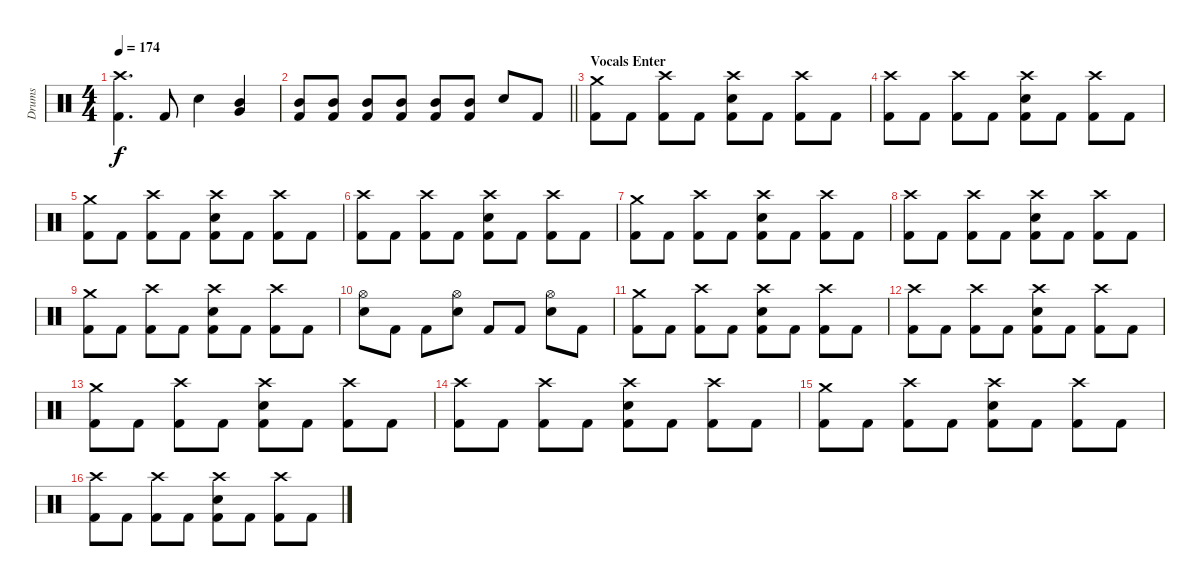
\track ("Drums" "Drums") {instrument percussion}
\staff {score}
\articulation defaults
\ts (4 4)
\tempo 174
\clef neutral
\ks c
("Crash high (hit)" "Kick (hit) 2").4{d dy f} "Kick (hit) 2".8 "Electric Snare (hit)".4 ("Mid Tom (hit)" "Very Low Tom (hit)").4 |
\barLineRight lightlight
("Mid Tom (hit)" "Kick (hit) 2").8 ("Mid Tom (hit)" "Kick (hit) 2").8 ("Mid Tom (hit)" "Kick (hit) 2").8 ("Mid Tom (hit)" "Kick (hit) 2").8 ("Mid Tom (hit)" "Kick (hit) 2").8 ("Mid Tom (hit)" "Kick (hit) 2").8 "Electric Snare (hit)".8 "Kick (hit) 2".8 |
\section ("" "Vocals Enter")
("Crash medium (hit)" "Kick (hit) 2").8 "Kick (hit) 2".8 ("Crash high (hit)" "Kick (hit) 2").8 "Kick (hit) 2".8 ("Crash high (hit)" "Electric Snare (hit)" "Kick (hit) 2").8 "Kick (hit) 2".8 ("Crash high (hit)" "Kick (hit) 2").8 "Kick (hit) 2".8 |
("Crash high (hit)" "Kick (hit) 2").8 "Kick (hit) 2".8 ("Crash high (hit)" "Kick (hit) 2").8 "Kick (hit) 2".8 ("Crash high (hit)" "Electric Snare (hit)" "Kick (hit) 2").8 "Kick (hit) 2".8 ("Crash high (hit)" "Kick (hit) 2").8 "Kick (hit) 2".8 |
("Crash medium (hit)" "Kick (hit) 2").8 "Kick (hit) 2".8 ("Crash high (hit)" "Kick (hit) 2").8 "Kick (hit) 2".8 ("Crash high (hit)" "Electric Snare (hit)" "Kick (hit) 2").8 "Kick (hit) 2".8 ("Crash high (hit)" "Kick (hit) 2").8 "Kick (hit) 2".8 |
("Crash high (hit)" "Kick (hit) 2").8 "Kick (hit) 2".8 ("Crash high (hit)" "Kick (hit) 2").8 "Kick (hit) 2".8 ("Crash high (hit)" "Electric Snare (hit)" "Kick (hit) 2").8 "Kick (hit) 2".8 ("Crash high (hit)" "Kick (hit) 2").8 "Kick (hit) 2".8 |
("Crash medium (hit)" "Kick (hit) 2").8 "Kick (hit) 2".8 ("Crash high (hit)" "Kick (hit) 2").8 "Kick (hit) 2".8 ("Crash high (hit)" "Electric Snare (hit)" "Kick (hit) 2").8 "Kick (hit) 2".8 ("Crash high (hit)" "Kick (hit) 2").8 "Kick (hit) 2".8 |
("Crash high (hit)" "Kick (hit) 2").8 "Kick (hit) 2".8 ("Crash high (hit)" "Kick (hit) 2").8 "Kick (hit) 2".8 ("Crash high (hit)" "Electric Snare (hit)" "Kick (hit) 2").8 "Kick (hit) 2".8 ("Crash high (hit)" "Kick (hit) 2").8 "Kick (hit) 2".8 |
("Crash medium (hit)" "Kick (hit) 2").8 "Kick (hit) 2".8 ("Crash high (hit)" "Kick (hit) 2").8 "Kick (hit) 2".8 ("Crash high (hit)" "Electric Snare (hit)" "Kick (hit) 2").8 "Kick (hit) 2".8 ("Crash high (hit)" "Kick (hit) 2").8 "Kick (hit) 2".8 |
("Hi-Hat (open)" "Electric Snare (hit)").8 "Kick (hit) 2".8 "Kick (hit) 2".8 ("Hi-Hat (open)" "Electric Snare (hit)").8 "Kick (hit) 2".8 "Kick (hit) 2".8 ("Hi-Hat (open)" "Electric Snare (hit)").8 "Kick (hit) 2".8 |
("Crash medium (hit)" "Kick (hit) 2").8 "Kick (hit) 2".8 ("Crash high (hit)" "Kick (hit) 2").8 "Kick (hit) 2".8 ("Crash high (hit)" "Electric Snare (hit)" "Kick (hit) 2").8 "Kick (hit) 2".8 ("Crash high (hit)" "Kick (hit) 2").8 "Kick (hit) 2".8 |
("Crash high (hit)" "Kick (hit) 2").8 "Kick (hit) 2".8 ("Crash high (hit)" "Kick (hit) 2").8 "Kick (hit) 2".8 ("Crash high (hit)" "Electric Snare (hit)" "Kick (hit) 2").8 "Kick (hit) 2".8 ("Crash high (hit)" "Kick (hit) 2").8 "Kick (hit) 2".8 |
("Crash medium (hit)" "Kick (hit) 2").8 "Kick (hit) 2".8 ("Crash high (hit)" "Kick (hit) 2").8 "Kick (hit) 2".8 ("Crash high (hit)" "Electric Snare (hit)" "Kick (hit) 2").8 "Kick (hit) 2".8 ("Crash high (hit)" "Kick (hit) 2").8 "Kick (hit) 2".8 |
("Crash high (hit)" "Kick (hit) 2").8 "Kick (hit) 2".8 ("Crash high (hit)" "Kick (hit) 2").8 "Kick (hit) 2".8 ("Crash high (hit)" "Electric Snare (hit)" "Kick (hit) 2").8 "Kick (hit) 2".8 ("Crash high (hit)" "Kick (hit) 2").8 "Kick (hit) 2".8 |
("Crash medium (hit)" "Kick (hit) 2").8 "Kick (hit) 2".8 ("Crash high (hit)" "Kick (hit) 2").8 "Kick (hit) 2".8 ("Crash high (hit)" "Electric Snare (hit)" "Kick (hit) 2").8 "Kick (hit) 2".8 ("Crash high (hit)" "Kick (hit) 2").8 "Kick (hit) 2".8 |
("Crash high (hit)" "Kick (hit) 2").8 "Kick (hit) 2".8 ("Crash high (hit)" "Kick (hit) 2").8 "Kick (hit) 2".8 ("Crash high (hit)" "Electric Snare (hit)" "Kick (hit) 2").8 "Kick (hit) 2".8 ("Crash high (hit)" "Kick (hit) 2").8 "Kick (hit) 2".8
